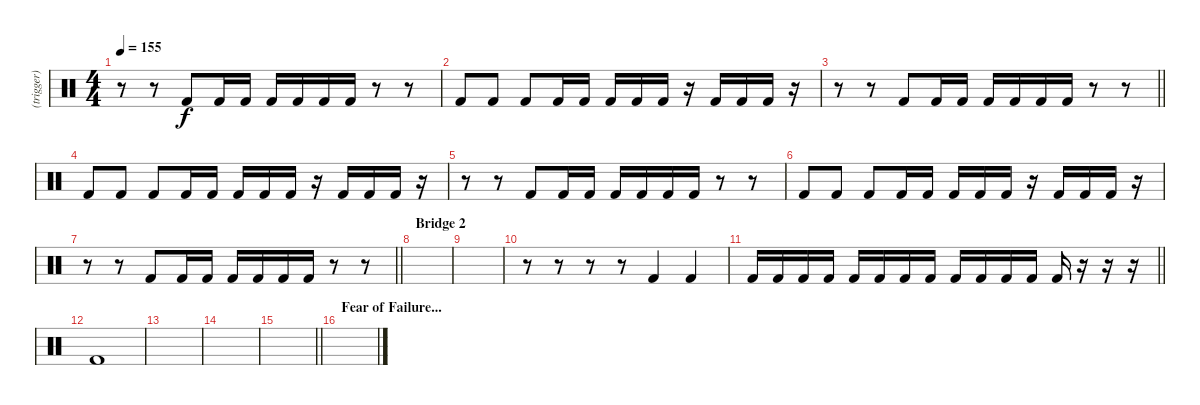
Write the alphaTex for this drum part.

\track ("(trigger)" "(trigger)") {instrument percussion}
\staff {score}
\articulation defaults
\ts (4 4)
\tempo 155
\clef neutral
\ks c
r.8{dy f} r.8 "Kick (hit) 2".8 "Kick (hit) 2".16 "Kick (hit) 2".16 "Kick (hit) 2".16 "Kick (hit) 2".16 "Kick (hit) 2".16 "Kick (hit) 2".16 r.8 r.8 |
"Kick (hit) 2".8 "Kick (hit) 2".8 "Kick (hit) 2".8 "Kick (hit) 2".16 "Kick (hit) 2".16 "Kick (hit) 2".16 "Kick (hit) 2".16 "Kick (hit) 2".16 r.16 "Kick (hit) 2".16 "Kick (hit) 2".16 "Kick (hit) 2".16 r.16 |
\barLineRight lightlight
r.8 r.8 "Kick (hit) 2".8 "Kick (hit) 2".16 "Kick (hit) 2".16 "Kick (hit) 2".16 "Kick (hit) 2".16 "Kick (hit) 2".16 "Kick (hit) 2".16 r.8 r.8 |
"Kick (hit) 2".8 "Kick (hit) 2".8 "Kick (hit) 2".8 "Kick (hit) 2".16 "Kick (hit) 2".16 "Kick (hit) 2".16 "Kick (hit) 2".16 "Kick (hit) 2".16 r.16 "Kick (hit) 2".16 "Kick (hit) 2".16 "Kick (hit) 2".16 r.16 |
r.8 r.8 "Kick (hit) 2".8 "Kick (hit) 2".16 "Kick (hit) 2".16 "Kick (hit) 2".16 "Kick (hit) 2".16 "Kick (hit) 2".16 "Kick (hit) 2".16 r.8 r.8 |
"Kick (hit) 2".8 "Kick (hit) 2".8 "Kick (hit) 2".8 "Kick (hit) 2".16 "Kick (hit) 2".16 "Kick (hit) 2".16 "Kick (hit) 2".16 "Kick (hit) 2".16 r.16 "Kick (hit) 2".16 "Kick (hit) 2".16 "Kick (hit) 2".16 r.16 |
\barLineRight lightlight
r.8 r.8 "Kick (hit) 2".8 "Kick (hit) 2".16 "Kick (hit) 2".16 "Kick (hit) 2".16 "Kick (hit) 2".16 "Kick (hit) 2".16 "Kick (hit) 2".16 r.8 r.8 |
\section ("" "Bridge 2")
|
|
r.8 r.8 r.8 r.8 "Kick (hit) 2".4 "Kick (hit) 2".4 |
\barLineRight lightlight "Kick (hit) 2".16 "Kick (hit) 2".16 "Kick (hit) 2".16 "Kick (hit) 2".16 "Kick (hit) 2".16 "Kick (hit) 2".16 "Kick (hit) 2".16 "Kick (hit) 2".16 "Kick (hit) 2".16 "Kick (hit) 2".16 "Kick (hit) 2".16 "Kick (hit) 2".16 "Kick (hit) 2".16
r.16 r.16 r.16 |
\section ("" "")
"Kick (hit) 2".1 |
|
|
\barLineRight lightlight
|
\section ("" "Fear of Failure...")
